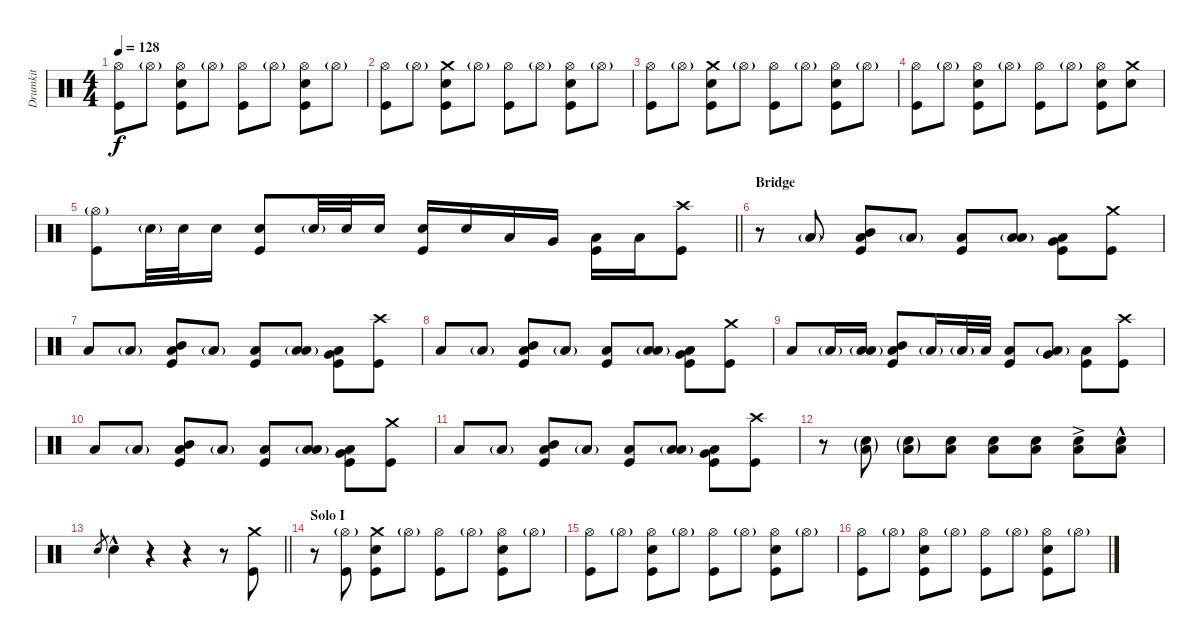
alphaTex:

\track ("Drumkit" "Drumkit") {instrument percussion}
\staff
\articulation defaults
\ts (4 4)
\tempo 128
\clef neutral
\ks c
("Hi-Hat (open)" "Kick (hit)").8{dy f} "Hi-Hat (open)"{g}.8 ("Hi-Hat (open)" "Kick (hit)" "Snare (hit) 2").8 "Hi-Hat (open)"{g}.8 ("Hi-Hat (open)" "Kick (hit)").8 "Hi-Hat (open)"{g}.8 ("Hi-Hat (open)" "Kick (hit)" "Snare (hit) 2").8 "Hi-Hat (open)"{g}.8 |
("Hi-Hat (open)" "Kick (hit)").8 "Hi-Hat (open)"{g}.8 ("Crash medium (hit)" "Kick (hit)" "Snare (hit) 2").8 "Hi-Hat (open)"{g}.8 ("Hi-Hat (open)" "Kick (hit)").8 "Hi-Hat (open)"{g}.8 ("Hi-Hat (open)" "Kick (hit)" "Snare (hit) 2").8 "Hi-Hat (open)"{g}.8 |
("Hi-Hat (open)" "Kick (hit)").8 "Hi-Hat (open)"{g}.8 ("Crash medium (hit)" "Kick (hit)" "Snare (hit) 2").8 "Hi-Hat (open)"{g}.8 ("Hi-Hat (open)" "Kick (hit)").8 "Hi-Hat (open)"{g}.8 ("Hi-Hat (open)" "Kick (hit)" "Snare (hit) 2").8 "Hi-Hat (open)"{g}.8 |
("Hi-Hat (open)" "Kick (hit)").8 "Hi-Hat (open)"{g}.8 ("Hi-Hat (open)" "Kick (hit)" "Snare (hit) 2").8 "Hi-Hat (open)"{g}.8 ("Hi-Hat (open)" "Kick (hit)").8 "Hi-Hat (open)"{g}.8 ("Hi-Hat (open)" "Kick (hit)" "Snare (hit) 2").8 ("Crash medium (hit)" "Snare (hit) 2").8 |
\barLineRight lightlight
("Hi-Hat (open)"{g} "Kick (hit)").8 "Snare (hit) 2"{g}.32 "Snare (hit) 2".32 "Snare (hit) 2".16 ("Snare (hit) 2" "Kick (hit)").8 "Snare (hit) 2"{g}.32 "Snare (hit) 2".32 "Snare (hit) 2".16 ("Snare (hit) 2" "Kick (hit)").16 "Snare (hit) 2".16 "Low Tom (hit)".16 "Very Low Tom (hit)".16 ("Low Floor Tom (hit)" "Kick (hit)").16 "Low Floor Tom (hit)".16 ("Crash high (hit)" "Kick (hit)").8 |
\section ("" "Bridge")
r.8 "Low Floor Tom (hit)"{g}.8 ("Low Floor Tom (hit)" "Mid Tom (hit)" "Kick (hit)").8 "Low Floor Tom (hit)"{g}.8 ("Low Floor Tom (hit)" "Kick (hit)").8 ("Low Floor Tom (hit)"{g} "Low Tom (hit)").8 ("Low Floor Tom (hit)" "Very Low Tom (hit)" "Kick (hit)").8 ("Crash medium (hit)" "Kick (hit)").8 |
"Low Floor Tom (hit)".8 "Low Floor Tom (hit)"{g}.8 ("Low Floor Tom (hit)" "Mid Tom (hit)" "Kick (hit)").8 "Low Floor Tom (hit)"{g}.8 ("Low Floor Tom (hit)" "Kick (hit)").8 ("Low Floor Tom (hit)"{g} "Low Tom (hit)").8 ("Low Floor Tom (hit)" "Very Low Tom (hit)" "Kick (hit)").8 ("Crash high (hit)" "Kick (hit)").8 |
"Low Floor Tom (hit)".8 "Low Floor Tom (hit)"{g}.8 ("Low Floor Tom (hit)" "Mid Tom (hit)" "Kick (hit)").8 "Low Floor Tom (hit)"{g}.8 ("Low Floor Tom (hit)" "Kick (hit)").8 ("Low Floor Tom (hit)"{g} "Low Tom (hit)").8 ("Low Floor Tom (hit)" "Very Low Tom (hit)" "Kick (hit)").8 ("Crash medium (hit)" "Kick (hit)").8 |
"Low Floor Tom (hit)".8 "Low Tom (hit)"{g}.16 ("Low Floor Tom (hit)"{g} "Low Tom (hit)"{g}).16 ("Low Floor Tom (hit)" "Mid Tom (hit)" "Kick (hit)").8 "Low Floor Tom (hit)"{g}.16 "Low Tom (hit)"{g}.32 "Low Tom (hit)".32 ("Low Floor Tom (hit)" "Kick (hit)").8 ("Low Floor Tom (hit)"{g} "Very Low Tom (hit)").8 ("Low Floor Tom (hit)" "Kick (hit)").8 ("Crash high (hit)" "Kick (hit)").8 |
"Low Floor Tom (hit)".8 "Low Floor Tom (hit)"{g}.8 ("Low Floor Tom (hit)" "Mid Tom (hit)" "Kick (hit)").8 "Low Floor Tom (hit)"{g}.8 ("Low Floor Tom (hit)" "Kick (hit)").8 ("Low Floor Tom (hit)"{g} "Low Tom (hit)").8 ("Low Floor Tom (hit)" "Very Low Tom (hit)" "Kick (hit)").8 ("Crash medium (hit)" "Kick (hit)").8 |
"Low Floor Tom (hit)".8 "Low Floor Tom (hit)"{g}.8 ("Low Floor Tom (hit)" "Mid Tom (hit)" "Kick (hit)").8 "Low Floor Tom (hit)"{g}.8 ("Low Floor Tom (hit)" "Kick (hit)").8 ("Low Floor Tom (hit)"{g} "Low Tom (hit)").8 ("Low Floor Tom (hit)" "Very Low Tom (hit)" "Kick (hit)").8 ("Crash high (hit)" "Kick (hit)").8 |
r.8 ("Low Floor Tom (hit)"{g} "Snare (hit) 2"{g}).8 ("Low Floor Tom (hit)"{g} "Snare (hit) 2"{g}).8 ("Low Floor Tom (hit)" "Snare (hit) 2").8 ("Low Floor Tom (hit)" "Snare (hit) 2").8 ("Low Floor Tom (hit)" "Snare (hit) 2").8 ("Low Floor Tom (hit)"{ac} "Snare (hit) 2"{ac}).8 ("Low Floor Tom (hit)"{hac} "Snare (hit) 2"{hac}).8 |
\barLineRight lightlight "Snare (hit)".8{gr} "Snare (hit) 2"{hac}.4
r.4 r.4 r.8 ("Crash medium (hit)" "Kick (hit)").8 |
\section ("" "Solo I")
r.8 ("Hi-Hat (open)"{g} "Kick (hit)").8 ("Crash medium (hit)" "Kick (hit)" "Snare (hit) 2").8 "Hi-Hat (open)"{g}.8 ("Hi-Hat (open)" "Kick (hit)").8 "Hi-Hat (open)"{g}.8 ("Hi-Hat (open)" "Kick (hit)" "Snare (hit) 2").8 "Hi-Hat (open)"{g}.8 |
("Hi-Hat (open)" "Kick (hit)").8 "Hi-Hat (open)"{g}.8 ("Hi-Hat (open)" "Kick (hit)" "Snare (hit) 2").8 "Hi-Hat (open)"{g}.8 ("Hi-Hat (open)" "Kick (hit)").8 "Hi-Hat (open)"{g}.8 ("Hi-Hat (open)" "Kick (hit)" "Snare (hit) 2").8 "Hi-Hat (open)"{g}.8 |
("Hi-Hat (open)" "Kick (hit)").8 "Hi-Hat (open)"{g}.8 ("Hi-Hat (open)" "Kick (hit)" "Snare (hit) 2").8 "Hi-Hat (open)"{g}.8 ("Hi-Hat (open)" "Kick (hit)").8 "Hi-Hat (open)"{g}.8 ("Hi-Hat (open)" "Kick (hit)" "Snare (hit) 2").8 "Hi-Hat (open)"{g}.8
